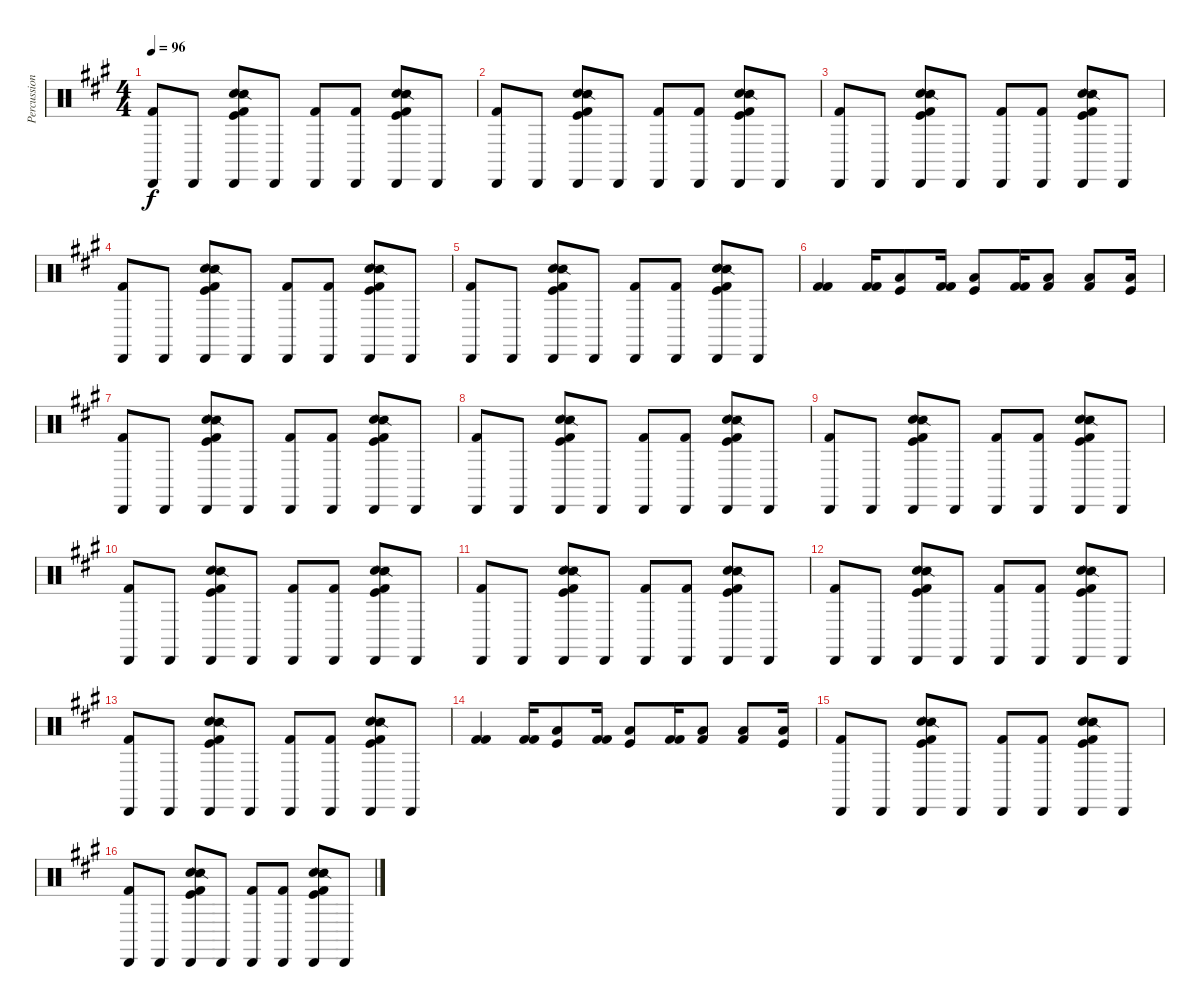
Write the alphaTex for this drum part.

\track ("Percussion" "Percussion") {instrument percussion}
\staff {score}
\articulation defaults
\ts (4 4)
\tempo 96
\clef neutral
\ks a
("Kick (hit) 2" "Cabasa (hit)").8{dy f} "Cabasa (hit)".8 ("Hand Clap (hit)" "Snare (side stick) 2" "Kick (hit) 2" "Kick (hit)" "Cabasa (hit)").8 "Cabasa (hit)".8 ("Kick (hit) 2" "Cabasa (hit)").8 ("Kick (hit) 2" "Cabasa (hit)").8 ("Hand Clap (hit)" "Snare (side stick) 2" "Kick (hit) 2" "Kick (hit)" "Cabasa (hit)").8 "Cabasa (hit)".8 |
("Kick (hit) 2" "Cabasa (hit)").8 "Cabasa (hit)".8 ("Hand Clap (hit)" "Snare (side stick) 2" "Kick (hit) 2" "Kick (hit)" "Cabasa (hit)").8 "Cabasa (hit)".8 ("Kick (hit) 2" "Cabasa (hit)").8 ("Kick (hit) 2" "Cabasa (hit)").8 ("Hand Clap (hit)" "Snare (side stick) 2" "Kick (hit) 2" "Kick (hit)" "Cabasa (hit)").8 "Cabasa (hit)".8 |
("Kick (hit) 2" "Cabasa (hit)").8 "Cabasa (hit)".8 ("Hand Clap (hit)" "Snare (side stick) 2" "Kick (hit) 2" "Kick (hit)" "Cabasa (hit)").8 "Cabasa (hit)".8 ("Kick (hit) 2" "Cabasa (hit)").8 ("Kick (hit) 2" "Cabasa (hit)").8 ("Hand Clap (hit)" "Snare (side stick) 2" "Kick (hit) 2" "Kick (hit)" "Cabasa (hit)").8 "Cabasa (hit)".8 |
("Kick (hit) 2" "Cabasa (hit)").8 "Cabasa (hit)".8 ("Hand Clap (hit)" "Snare (side stick) 2" "Kick (hit) 2" "Kick (hit)" "Cabasa (hit)").8 "Cabasa (hit)".8 ("Kick (hit) 2" "Cabasa (hit)").8 ("Kick (hit) 2" "Cabasa (hit)").8 ("Hand Clap (hit)" "Snare (side stick) 2" "Kick (hit) 2" "Kick (hit)" "Cabasa (hit)").8 "Cabasa (hit)".8 |
("Kick (hit) 2" "Cabasa (hit)").8 "Cabasa (hit)".8 ("Hand Clap (hit)" "Snare (side stick) 2" "Kick (hit) 2" "Kick (hit)" "Cabasa (hit)").8 "Cabasa (hit)".8 ("Kick (hit) 2" "Cabasa (hit)").8 ("Kick (hit) 2" "Cabasa (hit)").8 ("Hand Clap (hit)" "Snare (side stick) 2" "Kick (hit) 2" "Kick (hit)" "Cabasa (hit)").8 "Cabasa (hit)".8 |
("Kick (hit) 2" "Kick (hit) 2").4 ("Kick (hit) 2" "Kick (hit) 2").16 ("Low Floor Tom (hit)" "Kick (hit)").8 ("Kick (hit) 2" "Kick (hit) 2").16 ("Low Floor Tom (hit)" "Kick (hit)").8 ("Kick (hit) 2" "Kick (hit) 2").16 ("Low Floor Tom (hit)" "Kick (hit) 2").8 ("Low Floor Tom (hit)" "Kick (hit) 2").8 ("Low Floor Tom (hit)" "Kick (hit)").16 |
("Kick (hit) 2" "Cabasa (hit)").8 "Cabasa (hit)".8 ("Hand Clap (hit)" "Snare (side stick) 2" "Kick (hit) 2" "Kick (hit)" "Cabasa (hit)").8 "Cabasa (hit)".8 ("Kick (hit) 2" "Cabasa (hit)").8 ("Kick (hit) 2" "Cabasa (hit)").8 ("Hand Clap (hit)" "Snare (side stick) 2" "Kick (hit) 2" "Kick (hit)" "Cabasa (hit)").8 "Cabasa (hit)".8 |
("Kick (hit) 2" "Cabasa (hit)").8 "Cabasa (hit)".8 ("Hand Clap (hit)" "Snare (side stick) 2" "Kick (hit) 2" "Kick (hit)" "Cabasa (hit)").8 "Cabasa (hit)".8 ("Kick (hit) 2" "Cabasa (hit)").8 ("Kick (hit) 2" "Cabasa (hit)").8 ("Hand Clap (hit)" "Snare (side stick) 2" "Kick (hit) 2" "Kick (hit)" "Cabasa (hit)").8 "Cabasa (hit)".8 |
("Kick (hit) 2" "Cabasa (hit)").8 "Cabasa (hit)".8 ("Hand Clap (hit)" "Snare (side stick) 2" "Kick (hit) 2" "Kick (hit)" "Cabasa (hit)").8 "Cabasa (hit)".8 ("Kick (hit) 2" "Cabasa (hit)").8 ("Kick (hit) 2" "Cabasa (hit)").8 ("Hand Clap (hit)" "Snare (side stick) 2" "Kick (hit) 2" "Kick (hit)" "Cabasa (hit)").8 "Cabasa (hit)".8 |
("Kick (hit) 2" "Cabasa (hit)").8 "Cabasa (hit)".8 ("Hand Clap (hit)" "Snare (side stick) 2" "Kick (hit) 2" "Kick (hit)" "Cabasa (hit)").8 "Cabasa (hit)".8 ("Kick (hit) 2" "Cabasa (hit)").8 ("Kick (hit) 2" "Cabasa (hit)").8 ("Hand Clap (hit)" "Snare (side stick) 2" "Kick (hit) 2" "Kick (hit)" "Cabasa (hit)").8 "Cabasa (hit)".8 |
("Kick (hit) 2" "Cabasa (hit)").8 "Cabasa (hit)".8 ("Hand Clap (hit)" "Snare (side stick) 2" "Kick (hit) 2" "Kick (hit)" "Cabasa (hit)").8 "Cabasa (hit)".8 ("Kick (hit) 2" "Cabasa (hit)").8 ("Kick (hit) 2" "Cabasa (hit)").8 ("Hand Clap (hit)" "Snare (side stick) 2" "Kick (hit) 2" "Kick (hit)" "Cabasa (hit)").8 "Cabasa (hit)".8 |
("Kick (hit) 2" "Cabasa (hit)").8 "Cabasa (hit)".8 ("Hand Clap (hit)" "Snare (side stick) 2" "Kick (hit) 2" "Kick (hit)" "Cabasa (hit)").8 "Cabasa (hit)".8 ("Kick (hit) 2" "Cabasa (hit)").8 ("Kick (hit) 2" "Cabasa (hit)").8 ("Hand Clap (hit)" "Snare (side stick) 2" "Kick (hit) 2" "Kick (hit)" "Cabasa (hit)").8 "Cabasa (hit)".8 |
("Kick (hit) 2" "Cabasa (hit)").8 "Cabasa (hit)".8 ("Hand Clap (hit)" "Snare (side stick) 2" "Kick (hit) 2" "Kick (hit)" "Cabasa (hit)").8 "Cabasa (hit)".8 ("Kick (hit) 2" "Cabasa (hit)").8 ("Kick (hit) 2" "Cabasa (hit)").8 ("Hand Clap (hit)" "Snare (side stick) 2" "Kick (hit) 2" "Kick (hit)" "Cabasa (hit)").8 "Cabasa (hit)".8 |
("Kick (hit) 2" "Kick (hit) 2").4 ("Kick (hit) 2" "Kick (hit) 2").16 ("Low Floor Tom (hit)" "Kick (hit)").8 ("Kick (hit) 2" "Kick (hit) 2").16 ("Low Floor Tom (hit)" "Kick (hit)").8 ("Kick (hit) 2" "Kick (hit) 2").16 ("Low Floor Tom (hit)" "Kick (hit) 2").8 ("Low Floor Tom (hit)" "Kick (hit) 2").8 ("Low Floor Tom (hit)" "Kick (hit)").16 |
("Kick (hit) 2" "Cabasa (hit)").8 "Cabasa (hit)".8 ("Hand Clap (hit)" "Snare (side stick) 2" "Kick (hit) 2" "Kick (hit)" "Cabasa (hit)").8 "Cabasa (hit)".8 ("Kick (hit) 2" "Cabasa (hit)").8 ("Kick (hit) 2" "Cabasa (hit)").8 ("Hand Clap (hit)" "Snare (side stick) 2" "Kick (hit) 2" "Kick (hit)" "Cabasa (hit)").8 "Cabasa (hit)".8 |
("Kick (hit) 2" "Cabasa (hit)").8 "Cabasa (hit)".8 ("Hand Clap (hit)" "Snare (side stick) 2" "Kick (hit) 2" "Kick (hit)" "Cabasa (hit)").8 "Cabasa (hit)".8 ("Kick (hit) 2" "Cabasa (hit)").8 ("Kick (hit) 2" "Cabasa (hit)").8 ("Hand Clap (hit)" "Snare (side stick) 2" "Kick (hit) 2" "Kick (hit)" "Cabasa (hit)").8 "Cabasa (hit)".8
